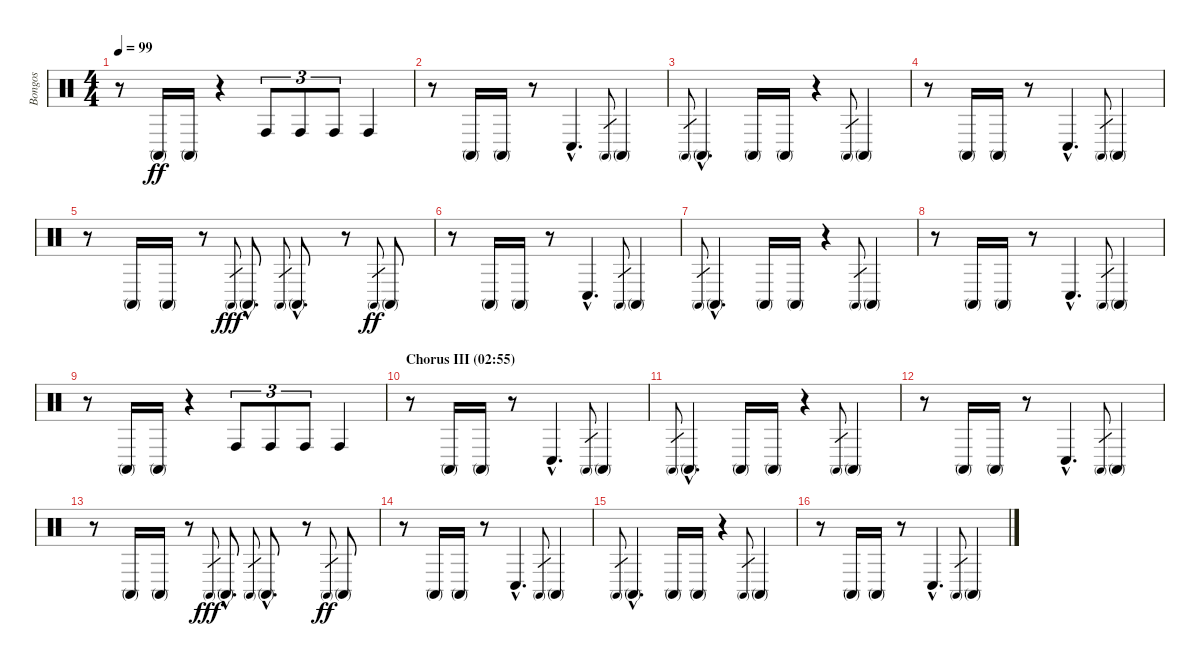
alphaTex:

\track ("Bongos" "Bongos") {instrument percussion}
\staff {score}
\articulation defaults
\ts (4 4)
\tempo 99
\clef neutral
\ks c
r.8{dy ff} "Conga high (mute)".16 "Conga high (mute)".16 r.4 "Conga high (hit)".8{tu (3 2)} "Conga high (hit)".8{tu (3 2)} "Conga high (hit)".8{tu (3 2)} "Conga high (hit)".4 |
r.8 "Conga high (mute)".16 "Conga high (mute)".16 r.8 "Conga low (hit)"{hac}.4{d} "Conga high (mute)".8{gr} "Conga high (mute)".4 |
"Conga high (mute)".8{gr} "Conga high (mute)"{hac}.4{d} "Conga high (mute)".16 "Conga high (mute)".16 r.4 "Conga high (mute)".8{gr} "Conga high (mute)".4 |
r.8 "Conga high (mute)".16 "Conga high (mute)".16 r.8 "Conga low (hit)"{hac}.4{d} "Conga high (mute)".8{gr} "Conga high (mute)".4 |
r.8 "Conga high (mute)".16 "Conga high (mute)".16 r.8 "Conga high (mute)".8{gr dy fff} "Conga high (mute)"{hac}.8{d} "Conga high (mute)".8{gr} "Conga high (mute)"{hac}.8{d} r.8 "Conga high (mute)".8{gr dy ff} "Conga high (mute)".8 |
r.8 "Conga high (mute)".16 "Conga high (mute)".16 r.8 "Conga low (hit)"{hac}.4{d} "Conga high (mute)".8{gr} "Conga high (mute)".4 |
"Conga high (mute)".8{gr} "Conga high (mute)"{hac}.4{d} "Conga high (mute)".16 "Conga high (mute)".16 r.4 "Conga high (mute)".8{gr} "Conga high (mute)".4 |
r.8 "Conga high (mute)".16 "Conga high (mute)".16 r.8 "Conga low (hit)"{hac}.4{d} "Conga high (mute)".8{gr} "Conga high (mute)".4 |
r.8 "Conga high (mute)".16 "Conga high (mute)".16 r.4 "Conga high (hit)".8{tu (3 2)} "Conga high (hit)".8{tu (3 2)} "Conga high (hit)".8{tu (3 2)} "Conga high (hit)".4 |
\section ("" "Chorus III (02:55)")
r.8 "Conga high (mute)".16 "Conga high (mute)".16 r.8 "Conga low (hit)"{hac}.4{d} "Conga high (mute)".8{gr} "Conga high (mute)".4 |
"Conga high (mute)".8{gr} "Conga high (mute)"{hac}.4{d} "Conga high (mute)".16 "Conga high (mute)".16 r.4 "Conga high (mute)".8{gr} "Conga high (mute)".4 |
r.8 "Conga high (mute)".16 "Conga high (mute)".16 r.8 "Conga low (hit)"{hac}.4{d} "Conga high (mute)".8{gr} "Conga high (mute)".4 |
r.8 "Conga high (mute)".16 "Conga high (mute)".16 r.8 "Conga high (mute)".8{gr dy fff} "Conga high (mute)"{hac}.8{d} "Conga high (mute)".8{gr} "Conga high (mute)"{hac}.8{d} r.8 "Conga high (mute)".8{gr dy ff} "Conga high (mute)".8 |
r.8 "Conga high (mute)".16 "Conga high (mute)".16 r.8 "Conga low (hit)"{hac}.4{d} "Conga high (mute)".8{gr} "Conga high (mute)".4 |
"Conga high (mute)".8{gr} "Conga high (mute)"{hac}.4{d} "Conga high (mute)".16 "Conga high (mute)".16 r.4 "Conga high (mute)".8{gr} "Conga high (mute)".4 |
r.8 "Conga high (mute)".16 "Conga high (mute)".16 r.8 "Conga low (hit)"{hac}.4{d} "Conga high (mute)".8{gr} "Conga high (mute)".4
